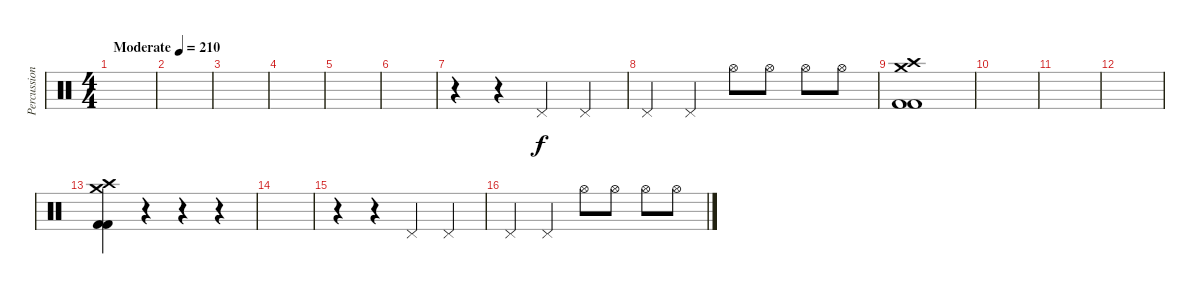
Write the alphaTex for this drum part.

\track ("Percussion" "Percussion") {instrument percussion}
\staff {score}
\articulation defaults
\ts (4 4)
\tempo (210 "Moderate")
\clef neutral
\ks c
|
|
|
|
|
|
r.4 r.4 "Pedal Hi-Hat (hit)".4 "Pedal Hi-Hat (hit)".4 |
"Pedal Hi-Hat (hit)".4 "Pedal Hi-Hat (hit)".4 "Hi-Hat (open)".8 "Hi-Hat (open)".8 "Hi-Hat (open)".8 "Hi-Hat (open)".8 |
("Crash medium (hit)" "Crash high (hit)" "Kick (hit) 2" "Kick (hit) 2").1 |
|
|
|
("Crash medium (hit)" "Crash high (hit)" "Kick (hit) 2" "Kick (hit) 2").4 r.4 r.4 r.4 |
|
r.4 r.4 "Pedal Hi-Hat (hit)".4 "Pedal Hi-Hat (hit)".4 |
"Pedal Hi-Hat (hit)".4 "Pedal Hi-Hat (hit)".4 "Hi-Hat (open)".8 "Hi-Hat (open)".8 "Hi-Hat (open)".8 "Hi-Hat (open)".8
